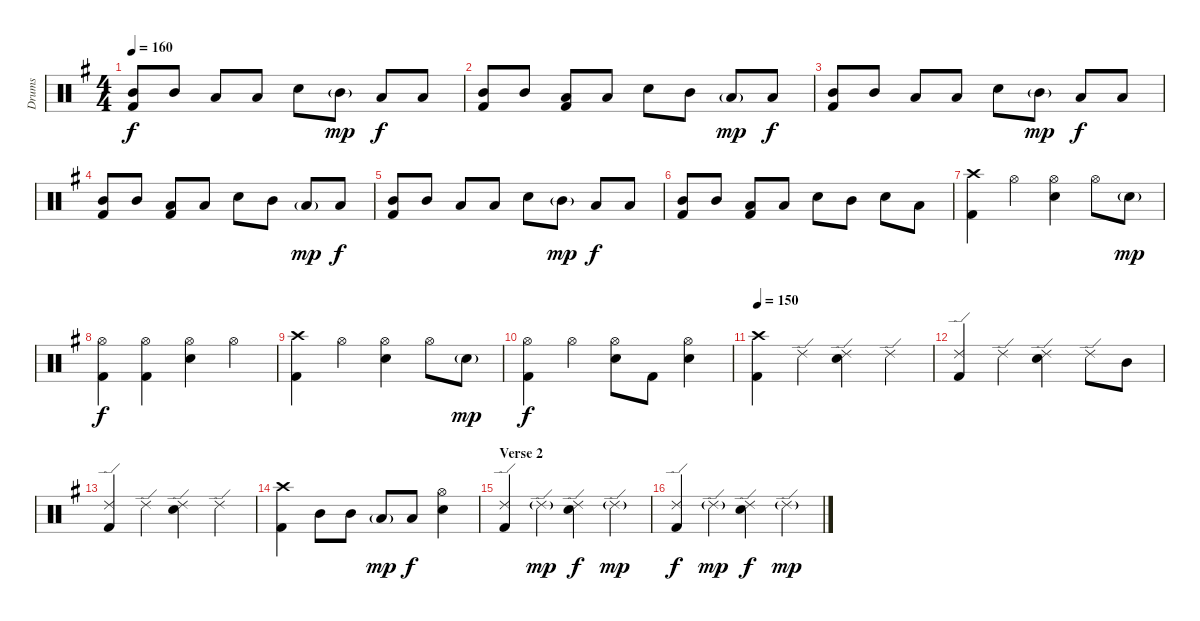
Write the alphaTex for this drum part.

\track ("Drums" "Drums") {instrument percussion}
\staff {score}
\articulation defaults
\ts (4 4)
\tempo 160
\clef neutral
\ks g
("Mid Tom (hit)" "Kick (hit) 2").8{dy f} "Mid Tom (hit)".8 "Low Tom (hit)".8 "Low Tom (hit)".8 "Electric Snare (hit)".8 "Mid Tom (hit)"{g}.8{dy mp} "Low Tom (hit)".8{dy f} "Low Tom (hit)".8 |
("Mid Tom (hit)" "Kick (hit) 2").8 "Mid Tom (hit)".8 ("Low Tom (hit)" "Kick (hit) 2").8 "Low Tom (hit)".8 "Electric Snare (hit)".8 "Mid Tom (hit)".8 "Low Tom (hit)"{g}.8{dy mp} "Low Tom (hit)".8{dy f} |
("Mid Tom (hit)" "Kick (hit) 2").8 "Mid Tom (hit)".8 "Low Tom (hit)".8 "Low Tom (hit)".8 "Electric Snare (hit)".8 "Mid Tom (hit)"{g}.8{dy mp} "Low Tom (hit)".8{dy f} "Low Tom (hit)".8 |
("Mid Tom (hit)" "Kick (hit) 2").8 "Mid Tom (hit)".8 ("Low Tom (hit)" "Kick (hit) 2").8 "Low Tom (hit)".8 "Electric Snare (hit)".8 "Mid Tom (hit)".8 "Low Tom (hit)"{g}.8{dy mp} "Low Tom (hit)".8{dy f} |
("Mid Tom (hit)" "Kick (hit) 2").8 "Mid Tom (hit)".8 "Low Tom (hit)".8 "Low Tom (hit)".8 "Electric Snare (hit)".8 "Mid Tom (hit)"{g}.8{dy mp} "Low Tom (hit)".8{dy f} "Low Tom (hit)".8 |
("Mid Tom (hit)" "Kick (hit) 2").8 "Mid Tom (hit)".8 ("Low Tom (hit)" "Kick (hit) 2").8 "Low Tom (hit)".8 "Electric Snare (hit)".8 "Mid Tom (hit)".8 "Electric Snare (hit)".8 "Low Tom (hit)".8 |
("Crash high (hit)" "Kick (hit) 2").4 "Hi-Hat (open)".4 ("Hi-Hat (open)" "Electric Snare (hit)").4 "Hi-Hat (open)".8 "Electric Snare (hit)"{g}.8{dy mp} |
("Hi-Hat (open)" "Kick (hit) 2").4{dy f} ("Hi-Hat (open)" "Kick (hit) 2").4 ("Hi-Hat (open)" "Electric Snare (hit)").4 "Hi-Hat (open)".4 |
("Crash high (hit)" "Kick (hit) 2").4 "Hi-Hat (open)".4 ("Hi-Hat (open)" "Electric Snare (hit)").4 "Hi-Hat (open)".8 "Electric Snare (hit)"{g}.8{dy mp} |
("Hi-Hat (open)" "Kick (hit) 2").4{dy f} "Hi-Hat (open)".4 ("Hi-Hat (open)" "Electric Snare (hit)").8 "Kick (hit) 2".8 ("Hi-Hat (open)" "Electric Snare (hit)").4 |
\tempo 150
("Crash high (hit)" "Kick (hit) 2").4 "Ride (edge) 2".4 ("Ride (edge) 2" "Electric Snare (hit)").4 "Ride (edge) 2".4 |
("Ride (edge) 2" "Kick (hit) 2").4 "Ride (edge) 2".4 ("Ride (edge) 2" "Electric Snare (hit)").4 "Ride (edge) 2".8 "Mid Tom (hit)".8 |
("Ride (edge) 2" "Kick (hit) 2").4 "Ride (edge) 2".4 ("Ride (edge) 2" "Electric Snare (hit)").4 "Ride (edge) 2".4 |
("Crash high (hit)" "Kick (hit) 2").4 "Mid Tom (hit)".8 "Mid Tom (hit)".8 "Low Tom (hit)"{g}.8{dy mp} "Low Tom (hit)".8{dy f} ("Hi-Hat (open)" "Electric Snare (hit)").4 |
\section ("" "Verse 2")
("Ride (edge) 2" "Kick (hit) 2").4 "Ride (edge) 2"{g}.4{dy mp} ("Ride (edge) 2" "Electric Snare (hit)").4{dy f} "Ride (edge) 2"{g}.4{dy mp} |
("Ride (edge) 2" "Kick (hit) 2").4{dy f} "Ride (edge) 2"{g}.4{dy mp} ("Ride (edge) 2" "Electric Snare (hit)").4{dy f} "Ride (edge) 2"{g}.4{dy mp}
